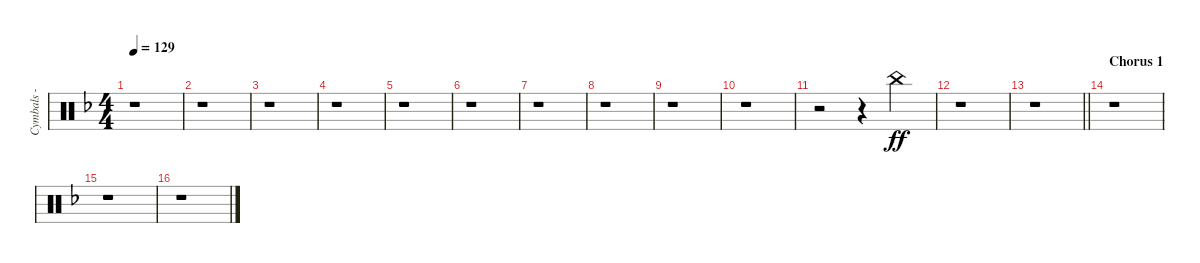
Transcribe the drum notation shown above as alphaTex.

\track ("Cymbals - china" "Cymbals - ") {instrument percussion}
\staff {score}
\articulation defaults
\ts (4 4)
\tempo 129
\clef neutral
\ks dminor
r.1{dy ff} |
r.1 |
r.1 |
r.1 |
r.1 |
r.1 |
r.1 |
r.1 |
r.1 |
r.1 |
r.2 r.4{beam merge} "China (hit)".4 |
r.1 |
\barLineRight lightlight
r.1 |
\section ("" "Chorus 1")
r.1 |
r.1 |
r.1
